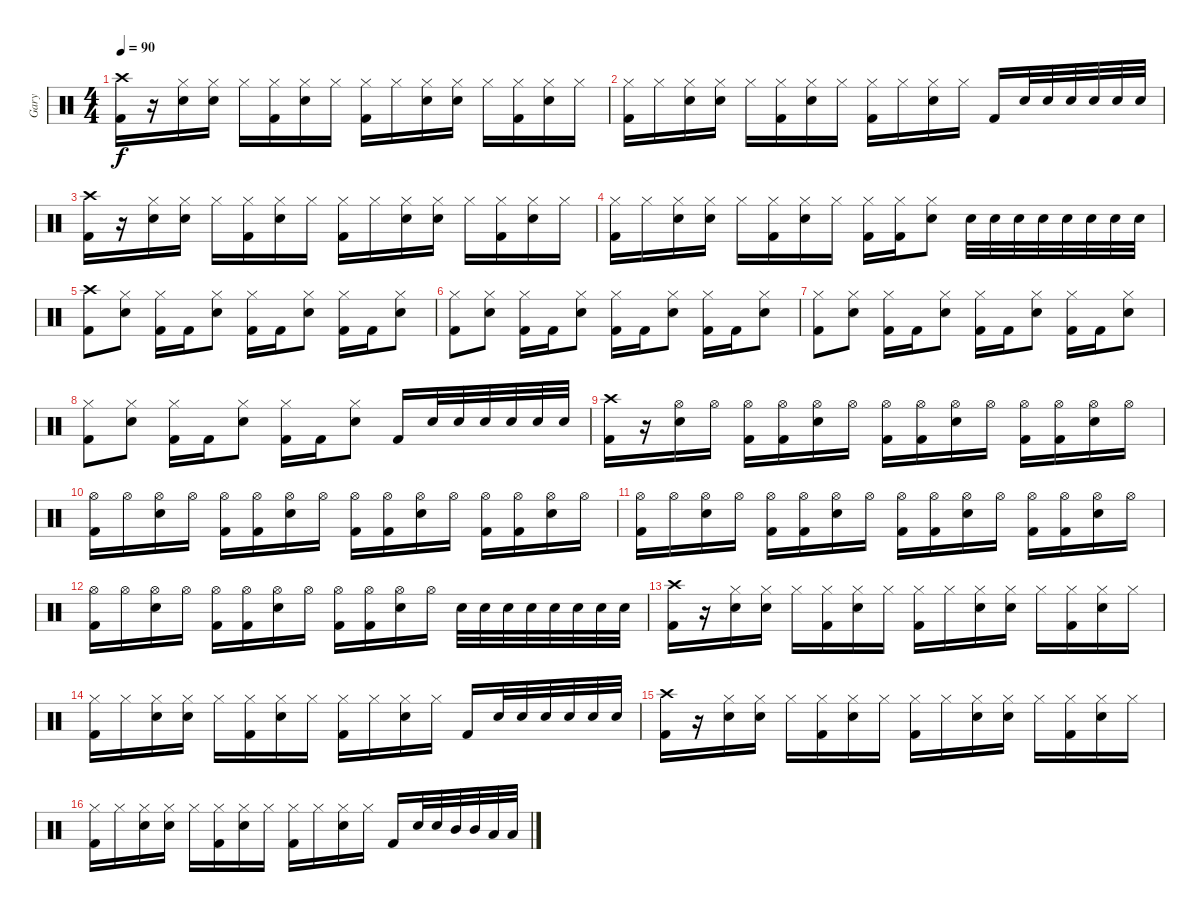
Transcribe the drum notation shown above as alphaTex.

\track ("Gary" "Gary") {instrument percussion}
\staff {score}
\articulation defaults
\ts (4 4)
\tempo 90
\clef neutral
\ks c
("Crash high (hit)" "Kick (hit) 2").16{dy f} r.16 ("Hi-Hat (closed)" "Electric Snare (hit)").16 ("Hi-Hat (closed)" "Electric Snare (hit)").16 "Hi-Hat (closed)".16 ("Hi-Hat (closed)" "Kick (hit) 2").16 ("Hi-Hat (closed)" "Electric Snare (hit)").16 "Hi-Hat (closed)".16 ("Hi-Hat (closed)" "Kick (hit) 2").16 "Hi-Hat (closed)".16 ("Hi-Hat (closed)" "Electric Snare (hit)").16 ("Hi-Hat (closed)" "Electric Snare (hit)").16 "Hi-Hat (closed)".16 ("Hi-Hat (closed)" "Kick (hit) 2").16 ("Hi-Hat (closed)" "Electric Snare (hit)").16 "Hi-Hat (closed)".16 |
("Hi-Hat (closed)" "Kick (hit) 2").16 "Hi-Hat (closed)".16 ("Hi-Hat (closed)" "Electric Snare (hit)").16 ("Hi-Hat (closed)" "Electric Snare (hit)").16 "Hi-Hat (closed)".16 ("Hi-Hat (closed)" "Kick (hit) 2").16 ("Hi-Hat (closed)" "Electric Snare (hit)").16 "Hi-Hat (closed)".16 ("Hi-Hat (closed)" "Kick (hit) 2").16 "Hi-Hat (closed)".16 ("Hi-Hat (closed)" "Electric Snare (hit)").16 "Hi-Hat (closed)".16 "Kick (hit) 2".16 "Electric Snare (hit)".32 "Electric Snare (hit)".32 "Electric Snare (hit)".32 "Electric Snare (hit)".32 "Electric Snare (hit)".32 "Electric Snare (hit)".32 |
("Crash high (hit)" "Kick (hit) 2").16 r.16 ("Hi-Hat (closed)" "Electric Snare (hit)").16 ("Hi-Hat (closed)" "Electric Snare (hit)").16 "Hi-Hat (closed)".16 ("Hi-Hat (closed)" "Kick (hit) 2").16 ("Hi-Hat (closed)" "Electric Snare (hit)").16 "Hi-Hat (closed)".16 ("Hi-Hat (closed)" "Kick (hit) 2").16 "Hi-Hat (closed)".16 ("Hi-Hat (closed)" "Electric Snare (hit)").16 ("Hi-Hat (closed)" "Electric Snare (hit)").16 "Hi-Hat (closed)".16 ("Hi-Hat (closed)" "Kick (hit) 2").16 ("Hi-Hat (closed)" "Electric Snare (hit)").16 "Hi-Hat (closed)".16 |
("Hi-Hat (closed)" "Kick (hit) 2").16 "Hi-Hat (closed)".16 ("Hi-Hat (closed)" "Electric Snare (hit)").16 ("Hi-Hat (closed)" "Electric Snare (hit)").16 "Hi-Hat (closed)".16 ("Hi-Hat (closed)" "Kick (hit) 2").16 ("Hi-Hat (closed)" "Electric Snare (hit)").16 "Hi-Hat (closed)".16 ("Hi-Hat (closed)" "Kick (hit) 2").16 ("Hi-Hat (closed)" "Kick (hit) 2").16 ("Hi-Hat (closed)" "Electric Snare (hit)").8 "Electric Snare (hit)".32 "Electric Snare (hit)".32 "Electric Snare (hit)".32 "Electric Snare (hit)".32 "Electric Snare (hit)".32 "Electric Snare (hit)".32 "Electric Snare (hit)".32 "Electric Snare (hit)".32 |
("Crash high (hit)" "Kick (hit) 2").8 ("Hi-Hat (closed)" "Electric Snare (hit)").8 ("Hi-Hat (closed)" "Kick (hit) 2").16 "Kick (hit) 2".16 ("Hi-Hat (closed)" "Electric Snare (hit)").8 ("Hi-Hat (closed)" "Kick (hit) 2").16 "Kick (hit) 2".16 ("Hi-Hat (closed)" "Electric Snare (hit)").8 ("Hi-Hat (closed)" "Kick (hit) 2").16 "Kick (hit) 2".16 ("Hi-Hat (closed)" "Electric Snare (hit)").8 |
("Hi-Hat (closed)" "Kick (hit) 2").8 ("Hi-Hat (closed)" "Electric Snare (hit)").8 ("Hi-Hat (closed)" "Kick (hit) 2").16 "Kick (hit) 2".16 ("Hi-Hat (closed)" "Electric Snare (hit)").8 ("Hi-Hat (closed)" "Kick (hit) 2").16 "Kick (hit) 2".16 ("Hi-Hat (closed)" "Electric Snare (hit)").8 ("Hi-Hat (closed)" "Kick (hit) 2").16 "Kick (hit) 2".16 ("Hi-Hat (closed)" "Electric Snare (hit)").8 |
("Hi-Hat (closed)" "Kick (hit) 2").8 ("Hi-Hat (closed)" "Electric Snare (hit)").8 ("Hi-Hat (closed)" "Kick (hit) 2").16 "Kick (hit) 2".16 ("Hi-Hat (closed)" "Electric Snare (hit)").8 ("Hi-Hat (closed)" "Kick (hit) 2").16 "Kick (hit) 2".16 ("Hi-Hat (closed)" "Electric Snare (hit)").8 ("Hi-Hat (closed)" "Kick (hit) 2").16 "Kick (hit) 2".16 ("Hi-Hat (closed)" "Electric Snare (hit)").8 |
("Hi-Hat (closed)" "Kick (hit) 2").8 ("Hi-Hat (closed)" "Electric Snare (hit)").8 ("Hi-Hat (closed)" "Kick (hit) 2").16 "Kick (hit) 2".16 ("Hi-Hat (closed)" "Electric Snare (hit)").8 ("Hi-Hat (closed)" "Kick (hit) 2").16 "Kick (hit) 2".16 ("Hi-Hat (closed)" "Electric Snare (hit)").8 "Kick (hit) 2".16 "Electric Snare (hit)".32 "Electric Snare (hit)".32 "Electric Snare (hit)".32 "Electric Snare (hit)".32 "Electric Snare (hit)".32 "Electric Snare (hit)".32 |
("Crash high (hit)" "Kick (hit) 2").16 r.16 ("Hi-Hat (open)" "Electric Snare (hit)").16 "Hi-Hat (open)".16 ("Hi-Hat (open)" "Kick (hit) 2").16 ("Hi-Hat (open)" "Kick (hit) 2").16 ("Hi-Hat (open)" "Electric Snare (hit)").16 "Hi-Hat (open)".16 ("Hi-Hat (open)" "Kick (hit) 2").16 ("Hi-Hat (open)" "Kick (hit) 2").16 ("Hi-Hat (open)" "Electric Snare (hit)").16 "Hi-Hat (open)".16 ("Hi-Hat (open)" "Kick (hit) 2").16 ("Hi-Hat (open)" "Kick (hit) 2").16 ("Hi-Hat (open)" "Electric Snare (hit)").16 "Hi-Hat (open)".16 |
("Hi-Hat (open)" "Kick (hit) 2").16 "Hi-Hat (open)".16 ("Hi-Hat (open)" "Electric Snare (hit)").16 "Hi-Hat (open)".16 ("Hi-Hat (open)" "Kick (hit) 2").16 ("Hi-Hat (open)" "Kick (hit) 2").16 ("Hi-Hat (open)" "Electric Snare (hit)").16 "Hi-Hat (open)".16 ("Hi-Hat (open)" "Kick (hit) 2").16 ("Hi-Hat (open)" "Kick (hit) 2").16 ("Hi-Hat (open)" "Electric Snare (hit)").16 "Hi-Hat (open)".16 ("Hi-Hat (open)" "Kick (hit) 2").16 ("Hi-Hat (open)" "Kick (hit) 2").16 ("Hi-Hat (open)" "Electric Snare (hit)").16 "Hi-Hat (open)".16 |
("Hi-Hat (open)" "Kick (hit) 2").16 "Hi-Hat (open)".16 ("Hi-Hat (open)" "Electric Snare (hit)").16 "Hi-Hat (open)".16 ("Hi-Hat (open)" "Kick (hit) 2").16 ("Hi-Hat (open)" "Kick (hit) 2").16 ("Hi-Hat (open)" "Electric Snare (hit)").16 "Hi-Hat (open)".16 ("Hi-Hat (open)" "Kick (hit) 2").16 ("Hi-Hat (open)" "Kick (hit) 2").16 ("Hi-Hat (open)" "Electric Snare (hit)").16 "Hi-Hat (open)".16 ("Hi-Hat (open)" "Kick (hit) 2").16 ("Hi-Hat (open)" "Kick (hit) 2").16 ("Hi-Hat (open)" "Electric Snare (hit)").16 "Hi-Hat (open)".16 |
("Hi-Hat (open)" "Kick (hit) 2").16 "Hi-Hat (open)".16 ("Hi-Hat (open)" "Electric Snare (hit)").16 "Hi-Hat (open)".16 ("Hi-Hat (open)" "Kick (hit) 2").16 ("Hi-Hat (open)" "Kick (hit) 2").16 ("Hi-Hat (open)" "Electric Snare (hit)").16 "Hi-Hat (open)".16 ("Hi-Hat (open)" "Kick (hit) 2").16 ("Hi-Hat (open)" "Kick (hit) 2").16 ("Hi-Hat (open)" "Electric Snare (hit)").16 "Hi-Hat (open)".16 "Electric Snare (hit)".32 "Electric Snare (hit)".32 "Electric Snare (hit)".32 "Electric Snare (hit)".32 "Electric Snare (hit)".32 "Electric Snare (hit)".32 "Electric Snare (hit)".32 "Electric Snare (hit)".32 |
("Crash high (hit)" "Kick (hit) 2").16 r.16 ("Hi-Hat (closed)" "Electric Snare (hit)").16 ("Hi-Hat (closed)" "Electric Snare (hit)").16 "Hi-Hat (closed)".16 ("Hi-Hat (closed)" "Kick (hit) 2").16 ("Hi-Hat (closed)" "Electric Snare (hit)").16 "Hi-Hat (closed)".16 ("Hi-Hat (closed)" "Kick (hit) 2").16 "Hi-Hat (closed)".16 ("Hi-Hat (closed)" "Electric Snare (hit)").16 ("Hi-Hat (closed)" "Electric Snare (hit)").16 "Hi-Hat (closed)".16 ("Hi-Hat (closed)" "Kick (hit) 2").16 ("Hi-Hat (closed)" "Electric Snare (hit)").16 "Hi-Hat (closed)".16 |
("Hi-Hat (closed)" "Kick (hit) 2").16 "Hi-Hat (closed)".16 ("Hi-Hat (closed)" "Electric Snare (hit)").16 ("Hi-Hat (closed)" "Electric Snare (hit)").16 "Hi-Hat (closed)".16 ("Hi-Hat (closed)" "Kick (hit) 2").16 ("Hi-Hat (closed)" "Electric Snare (hit)").16 "Hi-Hat (closed)".16 ("Hi-Hat (closed)" "Kick (hit) 2").16 "Hi-Hat (closed)".16 ("Hi-Hat (closed)" "Electric Snare (hit)").16 "Hi-Hat (closed)".16 "Kick (hit) 2".16 "Electric Snare (hit)".32 "Electric Snare (hit)".32 "Electric Snare (hit)".32 "Electric Snare (hit)".32 "Electric Snare (hit)".32 "Electric Snare (hit)".32 |
("Crash high (hit)" "Kick (hit) 2").16 r.16 ("Hi-Hat (closed)" "Electric Snare (hit)").16 ("Hi-Hat (closed)" "Electric Snare (hit)").16 "Hi-Hat (closed)".16 ("Hi-Hat (closed)" "Kick (hit) 2").16 ("Hi-Hat (closed)" "Electric Snare (hit)").16 "Hi-Hat (closed)".16 ("Hi-Hat (closed)" "Kick (hit) 2").16 "Hi-Hat (closed)".16 ("Hi-Hat (closed)" "Electric Snare (hit)").16 ("Hi-Hat (closed)" "Electric Snare (hit)").16 "Hi-Hat (closed)".16 ("Hi-Hat (closed)" "Kick (hit) 2").16 ("Hi-Hat (closed)" "Electric Snare (hit)").16 "Hi-Hat (closed)".16 |
("Hi-Hat (closed)" "Kick (hit) 2").16 "Hi-Hat (closed)".16 ("Hi-Hat (closed)" "Electric Snare (hit)").16 ("Hi-Hat (closed)" "Electric Snare (hit)").16 "Hi-Hat (closed)".16 ("Hi-Hat (closed)" "Kick (hit) 2").16 ("Hi-Hat (closed)" "Electric Snare (hit)").16 "Hi-Hat (closed)".16 ("Hi-Hat (closed)" "Kick (hit) 2").16 "Hi-Hat (closed)".16 ("Hi-Hat (closed)" "Electric Snare (hit)").16 "Hi-Hat (closed)".16 "Kick (hit) 2".16 "Electric Snare (hit)".32 "Electric Snare (hit)".32 "Mid Tom (hit)".32 "Mid Tom (hit)".32 "Low Tom (hit)".32 "Low Tom (hit)".32
